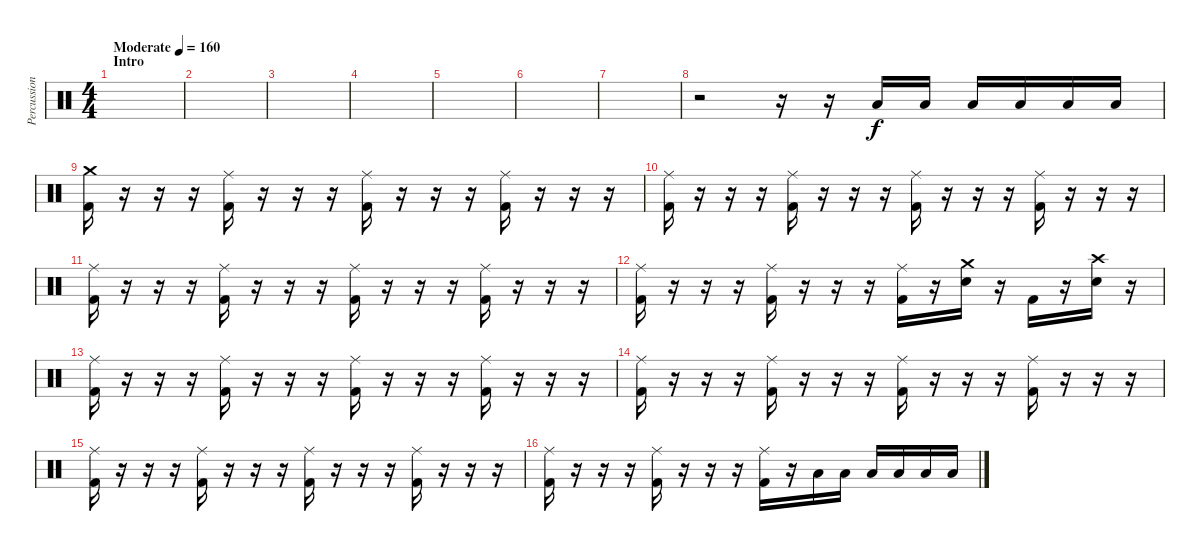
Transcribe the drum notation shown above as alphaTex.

\track ("Percussion" "Percussion") {instrument percussion}
\staff {score}
\articulation defaults
\ts (4 4)
\section ("" "Intro")
\tempo (160 "Moderate")
\clef neutral
\ks c
|
|
|
|
|
|
|
r.2 r.16 r.16 "Low Tom (hit)".16 "Low Tom (hit)".16 "Low Floor Tom (hit)".16 "Low Floor Tom (hit)".16 "Low Floor Tom (hit)".16 "Low Floor Tom (hit)".16 |
("Crash medium (hit)" "Kick (hit) 2").16 r.16 r.16 r.16 ("Ride (middle)" "Kick (hit) 2").16 r.16 r.16 r.16 ("Ride (middle)" "Kick (hit) 2").16 r.16 r.16 r.16 ("Ride (middle)" "Kick (hit) 2").16 r.16 r.16 r.16 |
("Ride (middle)" "Kick (hit) 2").16 r.16 r.16 r.16 ("Ride (middle)" "Kick (hit) 2").16 r.16 r.16 r.16 ("Ride (middle)" "Kick (hit) 2").16 r.16 r.16 r.16 ("Ride (middle)" "Kick (hit) 2").16 r.16 r.16 r.16 |
("Ride (middle)" "Kick (hit) 2").16 r.16 r.16 r.16 ("Ride (middle)" "Kick (hit) 2").16 r.16 r.16 r.16 ("Ride (middle)" "Kick (hit) 2").16 r.16 r.16 r.16 ("Ride (middle)" "Kick (hit) 2").16 r.16 r.16 r.16 |
("Ride (middle)" "Kick (hit) 2").16 r.16 r.16 r.16 ("Ride (middle)" "Kick (hit) 2").16 r.16 r.16 r.16 ("Ride (middle)" "Kick (hit) 2").16 r.16 ("Crash medium (hit)" "Snare (hit) 2").16 r.16 "Kick (hit) 2".16 r.16 ("Crash high (hit)" "Snare (hit) 2").16 r.16 |
("Ride (middle)" "Kick (hit) 2").16 r.16 r.16 r.16 ("Ride (middle)" "Kick (hit) 2").16 r.16 r.16 r.16 ("Ride (middle)" "Kick (hit) 2").16 r.16 r.16 r.16 ("Ride (middle)" "Kick (hit) 2").16 r.16 r.16 r.16 |
("Ride (middle)" "Kick (hit) 2").16 r.16 r.16 r.16 ("Ride (middle)" "Kick (hit) 2").16 r.16 r.16 r.16 ("Ride (middle)" "Kick (hit) 2").16 r.16 r.16 r.16 ("Ride (middle)" "Kick (hit) 2").16 r.16 r.16 r.16 |
("Ride (middle)" "Kick (hit) 2").16 r.16 r.16 r.16 ("Ride (middle)" "Kick (hit) 2").16 r.16 r.16 r.16 ("Ride (middle)" "Kick (hit) 2").16 r.16 r.16 r.16 ("Ride (middle)" "Kick (hit) 2").16 r.16 r.16 r.16 |
("Ride (middle)" "Kick (hit) 2").16 r.16 r.16 r.16 ("Ride (middle)" "Kick (hit) 2").16 r.16 r.16 r.16 ("Ride (middle)" "Kick (hit) 2").16 r.16 "Low Tom (hit)".16 "Low Tom (hit)".16 "Low Floor Tom (hit)".16 "Low Floor Tom (hit)".16 "Low Floor Tom (hit)".16 "Low Floor Tom (hit)".16
